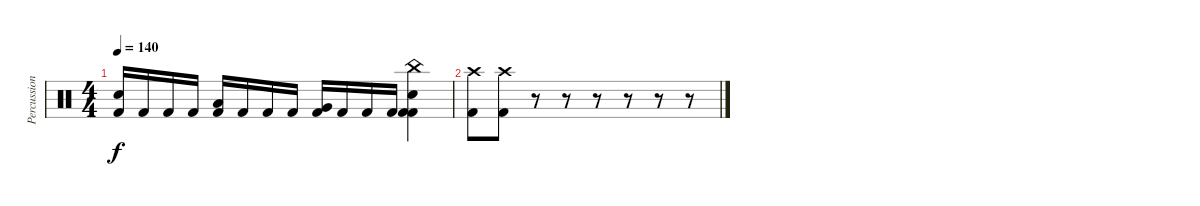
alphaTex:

\track ("Percussion" "Percussion") {instrument percussion}
\staff {score}
\articulation defaults
\ts (4 4)
\tempo 140
\clef neutral
\ks c
("Electric Snare (hit)" "Kick (hit) 2").16{dy f} "Kick (hit) 2".16 "Kick (hit) 2".16 "Kick (hit) 2".16 ("Low Tom (hit)" "Kick (hit) 2").16 "Kick (hit) 2".16 "Kick (hit) 2".16 "Kick (hit) 2".16 ("Very Low Tom (hit)" "Kick (hit) 2").16 "Kick (hit) 2".16 "Kick (hit) 2".16 "Kick (hit) 2".16 ("China (hit)" "Electric Snare (hit)" "Kick (hit) 2" "Kick (hit) 2").4 |
("Crash high (hit)" "Kick (hit) 2").8 ("Crash high (hit)" "Kick (hit) 2").8 r.8 r.8 r.8 r.8 r.8 r.8
